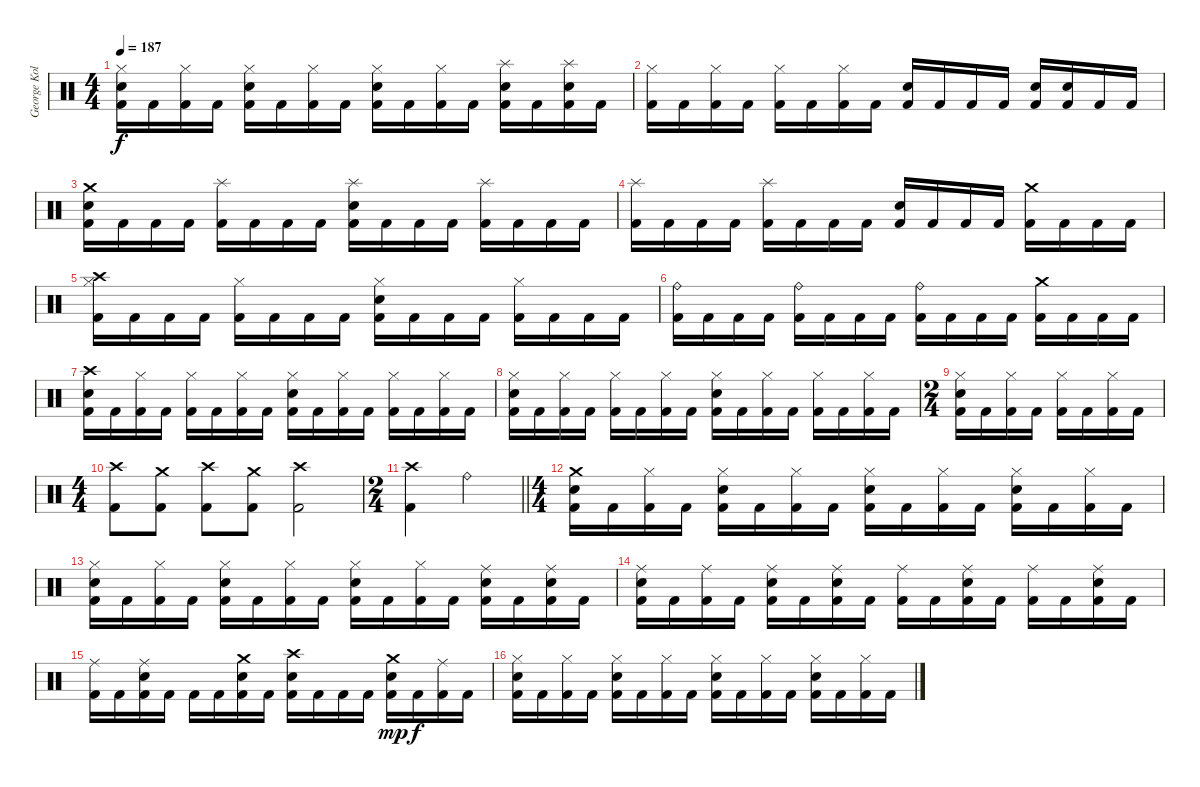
\track ("George Kollias" "George Kol") {instrument percussion}
\staff {score}
\articulation defaults
\ts (4 4)
\tempo 187
\clef neutral
\ks c
("Hi-Hat (closed)" "Electric Snare (hit)" "Kick (hit) 2").16{dy f} "Kick (hit) 2".16 ("Hi-Hat (closed)" "Kick (hit) 2").16 "Kick (hit) 2".16 ("Hi-Hat (closed)" "Electric Snare (hit)" "Kick (hit) 2").16 "Kick (hit) 2".16 ("Hi-Hat (closed)" "Kick (hit) 2").16 "Kick (hit) 2".16 ("Hi-Hat (closed)" "Electric Snare (hit)" "Kick (hit) 2").16 "Kick (hit) 2".16 ("Hi-Hat (closed)" "Kick (hit) 2").16 "Kick (hit) 2".16 ("Splash (hit)" "Electric Snare (hit)" "Kick (hit) 2").16 "Kick (hit) 2".16 ("Splash (hit)" "Electric Snare (hit)" "Kick (hit) 2").16 "Kick (hit) 2".16 |
("Hi-Hat (closed)" "Kick (hit) 2").16 "Kick (hit) 2".16 ("Hi-Hat (closed)" "Kick (hit) 2").16 "Kick (hit) 2".16 ("Hi-Hat (closed)" "Kick (hit) 2").16 "Kick (hit) 2".16 ("Hi-Hat (closed)" "Kick (hit) 2").16 "Kick (hit) 2".16 ("Electric Snare (hit)" "Kick (hit) 2").16 "Kick (hit) 2".16 "Kick (hit) 2".16 "Kick (hit) 2".16 ("Electric Snare (hit)" "Kick (hit) 2").16 ("Electric Snare (hit)" "Kick (hit) 2").16 "Kick (hit) 2".16 "Kick (hit) 2".16 |
("Crash medium (hit)" "Electric Snare (hit)" "Kick (hit) 2").16 "Kick (hit) 2".16 "Kick (hit) 2".16 "Kick (hit) 2".16 ("Splash (hit)" "Kick (hit) 2").16 "Kick (hit) 2".16 "Kick (hit) 2".16 "Kick (hit) 2".16 ("Splash (hit)" "Electric Snare (hit)" "Kick (hit) 2").16 "Kick (hit) 2".16 "Kick (hit) 2".16 "Kick (hit) 2".16 ("Splash (hit)" "Kick (hit) 2").16 "Kick (hit) 2".16 "Kick (hit) 2".16 "Kick (hit) 2".16 |
("Splash (hit)" "Kick (hit) 2").16 "Kick (hit) 2".16 "Kick (hit) 2".16 "Kick (hit) 2".16 ("Splash (hit)" "Kick (hit) 2").16 "Kick (hit) 2".16 "Kick (hit) 2".16 "Kick (hit) 2".16 ("Electric Snare (hit)" "Kick (hit) 2").16 "Kick (hit) 2".16 "Kick (hit) 2".16 "Kick (hit) 2".16 ("Crash medium (hit)" "Kick (hit) 2").16 "Kick (hit) 2".16 "Kick (hit) 2".16 "Kick (hit) 2".16 |
("Crash high (hit)" "Hi-Hat (closed)" "Kick (hit) 2").16 "Kick (hit) 2".16 "Kick (hit) 2".16 "Kick (hit) 2".16 ("Hi-Hat (closed)" "Kick (hit) 2").16 "Kick (hit) 2".16 "Kick (hit) 2".16 "Kick (hit) 2".16 ("Hi-Hat (closed)" "Electric Snare (hit)" "Kick (hit) 2").16 "Kick (hit) 2".16 "Kick (hit) 2".16 "Kick (hit) 2".16 ("Hi-Hat (closed)" "Kick (hit) 2").16 "Kick (hit) 2".16 "Kick (hit) 2".16 "Kick (hit) 2".16 |
("Ride (bell)" "Kick (hit) 2").16 "Kick (hit) 2".16 "Kick (hit) 2".16 "Kick (hit) 2".16 ("Ride (bell)" "Kick (hit) 2").16 "Kick (hit) 2".16 "Kick (hit) 2".16 "Kick (hit) 2".16 ("Ride (bell)" "Kick (hit) 2").16 "Kick (hit) 2".16 "Kick (hit) 2".16 "Kick (hit) 2".16 ("Crash medium (hit)" "Kick (hit) 2").16 "Kick (hit) 2".16 "Kick (hit) 2".16 "Kick (hit) 2".16 |
("Crash high (hit)" "Electric Snare (hit)" "Kick (hit) 2").16 "Kick (hit) 2".16 ("Hi-Hat (closed)" "Kick (hit) 2").16 "Kick (hit) 2".16 ("Hi-Hat (closed)" "Kick (hit) 2").16 "Kick (hit) 2".16 ("Hi-Hat (closed)" "Kick (hit) 2").16 "Kick (hit) 2".16 ("Hi-Hat (closed)" "Electric Snare (hit)" "Kick (hit) 2").16 "Kick (hit) 2".16 ("Hi-Hat (closed)" "Kick (hit) 2").16 "Kick (hit) 2".16 ("Hi-Hat (closed)" "Kick (hit) 2").16 "Kick (hit) 2".16 ("Hi-Hat (closed)" "Kick (hit) 2").16 "Kick (hit) 2".16 |
("Hi-Hat (closed)" "Electric Snare (hit)" "Kick (hit) 2").16 "Kick (hit) 2".16 ("Hi-Hat (closed)" "Kick (hit) 2").16 "Kick (hit) 2".16 ("Hi-Hat (closed)" "Kick (hit) 2").16 "Kick (hit) 2".16 ("Hi-Hat (closed)" "Kick (hit) 2").16 "Kick (hit) 2".16 ("Hi-Hat (closed)" "Electric Snare (hit)" "Kick (hit) 2").16 "Kick (hit) 2".16 ("Hi-Hat (closed)" "Kick (hit) 2").16 "Kick (hit) 2".16 ("Hi-Hat (closed)" "Kick (hit) 2").16 "Kick (hit) 2".16 ("Hi-Hat (closed)" "Kick (hit) 2").16 "Kick (hit) 2".16 |
\ts (2 4)
("Hi-Hat (closed)" "Electric Snare (hit)" "Kick (hit) 2").16 "Kick (hit) 2".16 ("Hi-Hat (closed)" "Kick (hit) 2").16 "Kick (hit) 2".16 ("Hi-Hat (closed)" "Kick (hit) 2").16 "Kick (hit) 2".16 ("Hi-Hat (closed)" "Kick (hit) 2").16 "Kick (hit) 2".16 |
\ts (4 4)
("Crash high (hit)" "Kick (hit) 2").8 ("Crash medium (hit)" "Kick (hit) 2").8 ("Crash high (hit)" "Kick (hit) 2").8 ("Crash medium (hit)" "Kick (hit) 2").8 ("Crash high (hit)" "Kick (hit) 2").2 |
\ts (2 4)
\barLineRight lightlight
("Crash high (hit)" "Kick (hit) 2").4 "Ride (bell)".4 |
\ts (4 4)
\section ("" "")
("Crash medium (hit)" "Electric Snare (hit)" "Kick (hit) 2").16 "Kick (hit) 2".16 ("Hi-Hat (closed)" "Kick (hit) 2").16 "Kick (hit) 2".16 ("Hi-Hat (closed)" "Electric Snare (hit)" "Kick (hit) 2").16 "Kick (hit) 2".16 ("Hi-Hat (closed)" "Kick (hit) 2").16 "Kick (hit) 2".16 ("Hi-Hat (closed)" "Electric Snare (hit)" "Kick (hit) 2").16 "Kick (hit) 2".16 ("Hi-Hat (closed)" "Kick (hit) 2").16 "Kick (hit) 2".16 ("Hi-Hat (closed)" "Electric Snare (hit)" "Kick (hit) 2").16 "Kick (hit) 2".16 ("Hi-Hat (closed)" "Kick (hit) 2").16 "Kick (hit) 2".16 |
("Hi-Hat (closed)" "Electric Snare (hit)" "Kick (hit) 2").16 "Kick (hit) 2".16 ("Hi-Hat (closed)" "Kick (hit) 2").16 "Kick (hit) 2".16 ("Hi-Hat (closed)" "Electric Snare (hit)" "Kick (hit) 2").16 "Kick (hit) 2".16 ("Hi-Hat (closed)" "Kick (hit) 2").16 "Kick (hit) 2".16 ("Hi-Hat (closed)" "Electric Snare (hit)" "Kick (hit) 2").16 "Kick (hit) 2".16 ("Hi-Hat (closed)" "Kick (hit) 2").16 "Kick (hit) 2".16 ("Ride (middle)" "Electric Snare (hit)" "Kick (hit) 2").16 "Kick (hit) 2".16 ("Ride (middle)" "Electric Snare (hit)" "Kick (hit) 2").16 "Kick (hit) 2".16 |
("Ride (middle)" "Electric Snare (hit)" "Kick (hit) 2").16 "Kick (hit) 2".16 ("Ride (middle)" "Kick (hit) 2").16 "Kick (hit) 2".16 ("Ride (middle)" "Electric Snare (hit)" "Kick (hit) 2").16 "Kick (hit) 2".16 ("Ride (middle)" "Electric Snare (hit)" "Kick (hit) 2").16 "Kick (hit) 2".16 ("Ride (middle)" "Kick (hit) 2").16 "Kick (hit) 2".16 ("Ride (middle)" "Electric Snare (hit)" "Kick (hit) 2").16 "Kick (hit) 2".16 ("Ride (middle)" "Kick (hit) 2").16 "Kick (hit) 2".16 ("Ride (middle)" "Electric Snare (hit)" "Kick (hit) 2").16 "Kick (hit) 2".16 |
("Ride (middle)" "Kick (hit) 2").16 "Kick (hit) 2".16 ("Ride (middle)" "Electric Snare (hit)" "Kick (hit) 2").16 "Kick (hit) 2".16 "Kick (hit) 2".16 "Kick (hit) 2".16 ("Crash medium (hit)" "Electric Snare (hit)" "Kick (hit) 2").16 "Kick (hit) 2".16 ("Crash high (hit)" "Electric Snare (hit)" "Kick (hit) 2").16 "Kick (hit) 2".16 "Kick (hit) 2".16 "Kick (hit) 2".16 ("Crash medium (hit)" "Electric Snare (hit)" "Kick (hit) 2").16{dy mp} "Kick (hit) 2".16{dy f} ("Ride (middle)" "Kick (hit) 2").16 "Kick (hit) 2".16 |
("Hi-Hat (closed)" "Electric Snare (hit)" "Kick (hit) 2").16 "Kick (hit) 2".16 ("Hi-Hat (closed)" "Kick (hit) 2").16 "Kick (hit) 2".16 ("Hi-Hat (closed)" "Electric Snare (hit)" "Kick (hit) 2").16 "Kick (hit) 2".16 ("Hi-Hat (closed)" "Kick (hit) 2").16 "Kick (hit) 2".16 ("Hi-Hat (closed)" "Electric Snare (hit)" "Kick (hit) 2").16 "Kick (hit) 2".16 ("Hi-Hat (closed)" "Kick (hit) 2").16 "Kick (hit) 2".16 ("Hi-Hat (closed)" "Electric Snare (hit)" "Kick (hit) 2").16 "Kick (hit) 2".16 ("Hi-Hat (closed)" "Kick (hit) 2").16 "Kick (hit) 2".16
